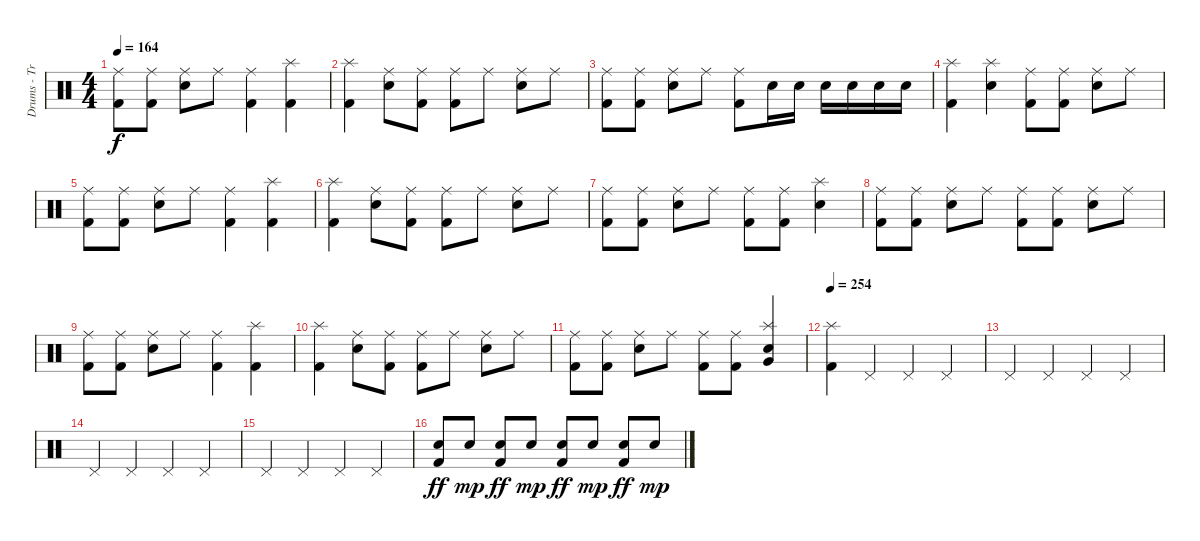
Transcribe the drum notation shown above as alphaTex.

\track ("Drums - Travis Barker" "Drums - Tr") {instrument percussion}
\staff {score}
\articulation defaults
\ts (4 4)
\tempo 164
\clef neutral
\ks c
("Ride (middle)" "Kick (hit) 2").8{dy f} ("Ride (middle)" "Kick (hit) 2").8 ("Ride (middle)" "Electric Snare (hit)").8 "Ride (middle)".8 ("Ride (middle)" "Kick (hit) 2").4 ("Splash (hit)" "Kick (hit) 2").4 |
("Splash (hit)" "Kick (hit) 2").4 ("Ride (middle)" "Electric Snare (hit)").8 ("Ride (middle)" "Kick (hit) 2").8 ("Ride (middle)" "Kick (hit) 2").8 "Ride (middle)".8 ("Ride (middle)" "Electric Snare (hit)").8 "Ride (middle)".8 |
("Ride (middle)" "Kick (hit) 2").8 ("Ride (middle)" "Kick (hit) 2").8 ("Ride (middle)" "Electric Snare (hit)").8 "Ride (middle)".8 ("Ride (middle)" "Kick (hit) 2").8 "Electric Snare (hit)".16 "Electric Snare (hit)".16 "Electric Snare (hit)".16 "Electric Snare (hit)".16 "Electric Snare (hit)".16 "Electric Snare (hit)".16 |
("Splash (hit)" "Kick (hit) 2").4 ("Splash (hit)" "Electric Snare (hit)").4 ("Ride (middle)" "Kick (hit) 2").8 ("Ride (middle)" "Kick (hit) 2").8 ("Ride (middle)" "Electric Snare (hit)").8 "Ride (middle)".8 |
("Ride (middle)" "Kick (hit) 2").8 ("Ride (middle)" "Kick (hit) 2").8 ("Ride (middle)" "Electric Snare (hit)").8 "Ride (middle)".8 ("Ride (middle)" "Kick (hit) 2").4 ("Splash (hit)" "Kick (hit) 2").4 |
("Splash (hit)" "Kick (hit) 2").4 ("Ride (middle)" "Electric Snare (hit)").8 ("Ride (middle)" "Kick (hit) 2").8 ("Ride (middle)" "Kick (hit) 2").8 "Ride (middle)".8 ("Ride (middle)" "Electric Snare (hit)").8 "Ride (middle)".8 |
("Ride (middle)" "Kick (hit) 2").8 ("Ride (middle)" "Kick (hit) 2").8 ("Ride (middle)" "Electric Snare (hit)").8 "Ride (middle)".8 ("Ride (middle)" "Kick (hit) 2").8 ("Ride (middle)" "Kick (hit) 2").8 ("Splash (hit)" "Electric Snare (hit)").4 |
("Ride (middle)" "Kick (hit) 2").8 ("Ride (middle)" "Kick (hit) 2").8 ("Ride (middle)" "Electric Snare (hit)").8 "Ride (middle)".8 ("Ride (middle)" "Kick (hit) 2").8 ("Ride (middle)" "Kick (hit) 2").8 ("Ride (middle)" "Electric Snare (hit)").8 "Ride (middle)".8 |
("Ride (middle)" "Kick (hit) 2").8 ("Ride (middle)" "Kick (hit) 2").8 ("Ride (middle)" "Electric Snare (hit)").8 "Ride (middle)".8 ("Ride (middle)" "Kick (hit) 2").4 ("Splash (hit)" "Kick (hit) 2").4 |
("Splash (hit)" "Kick (hit) 2").4 ("Ride (middle)" "Electric Snare (hit)").8 ("Ride (middle)" "Kick (hit) 2").8 ("Ride (middle)" "Kick (hit) 2").8 "Ride (middle)".8 ("Ride (middle)" "Electric Snare (hit)").8 "Ride (middle)".8 |
("Ride (middle)" "Kick (hit) 2").8 ("Ride (middle)" "Kick (hit) 2").8 ("Ride (middle)" "Electric Snare (hit)").8 "Ride (middle)".8 ("Ride (middle)" "Kick (hit) 2").8 ("Ride (middle)" "Kick (hit) 2").8 ("Splash (hit)" "Very Low Tom (hit)" "Electric Snare (hit)").4 |
\tempo 254
("Splash (hit)" "Kick (hit) 2").4 "Pedal Hi-Hat (hit)".4 "Pedal Hi-Hat (hit)".4 "Pedal Hi-Hat (hit)".4 |
"Pedal Hi-Hat (hit)".4 "Pedal Hi-Hat (hit)".4 "Pedal Hi-Hat (hit)".4 "Pedal Hi-Hat (hit)".4 |
"Pedal Hi-Hat (hit)".4 "Pedal Hi-Hat (hit)".4 "Pedal Hi-Hat (hit)".4 "Pedal Hi-Hat (hit)".4 |
"Pedal Hi-Hat (hit)".4 "Pedal Hi-Hat (hit)".4 "Pedal Hi-Hat (hit)".4 "Pedal Hi-Hat (hit)".4 |
("Electric Snare (hit)" "Kick (hit) 2").8{dy ff} "Electric Snare (hit)".8{dy mp} ("Electric Snare (hit)" "Kick (hit) 2").8{dy ff} "Electric Snare (hit)".8{dy mp} ("Electric Snare (hit)" "Kick (hit) 2").8{dy ff} "Electric Snare (hit)".8{dy mp} ("Electric Snare (hit)" "Kick (hit) 2").8{dy ff} "Electric Snare (hit)".8{dy mp}
